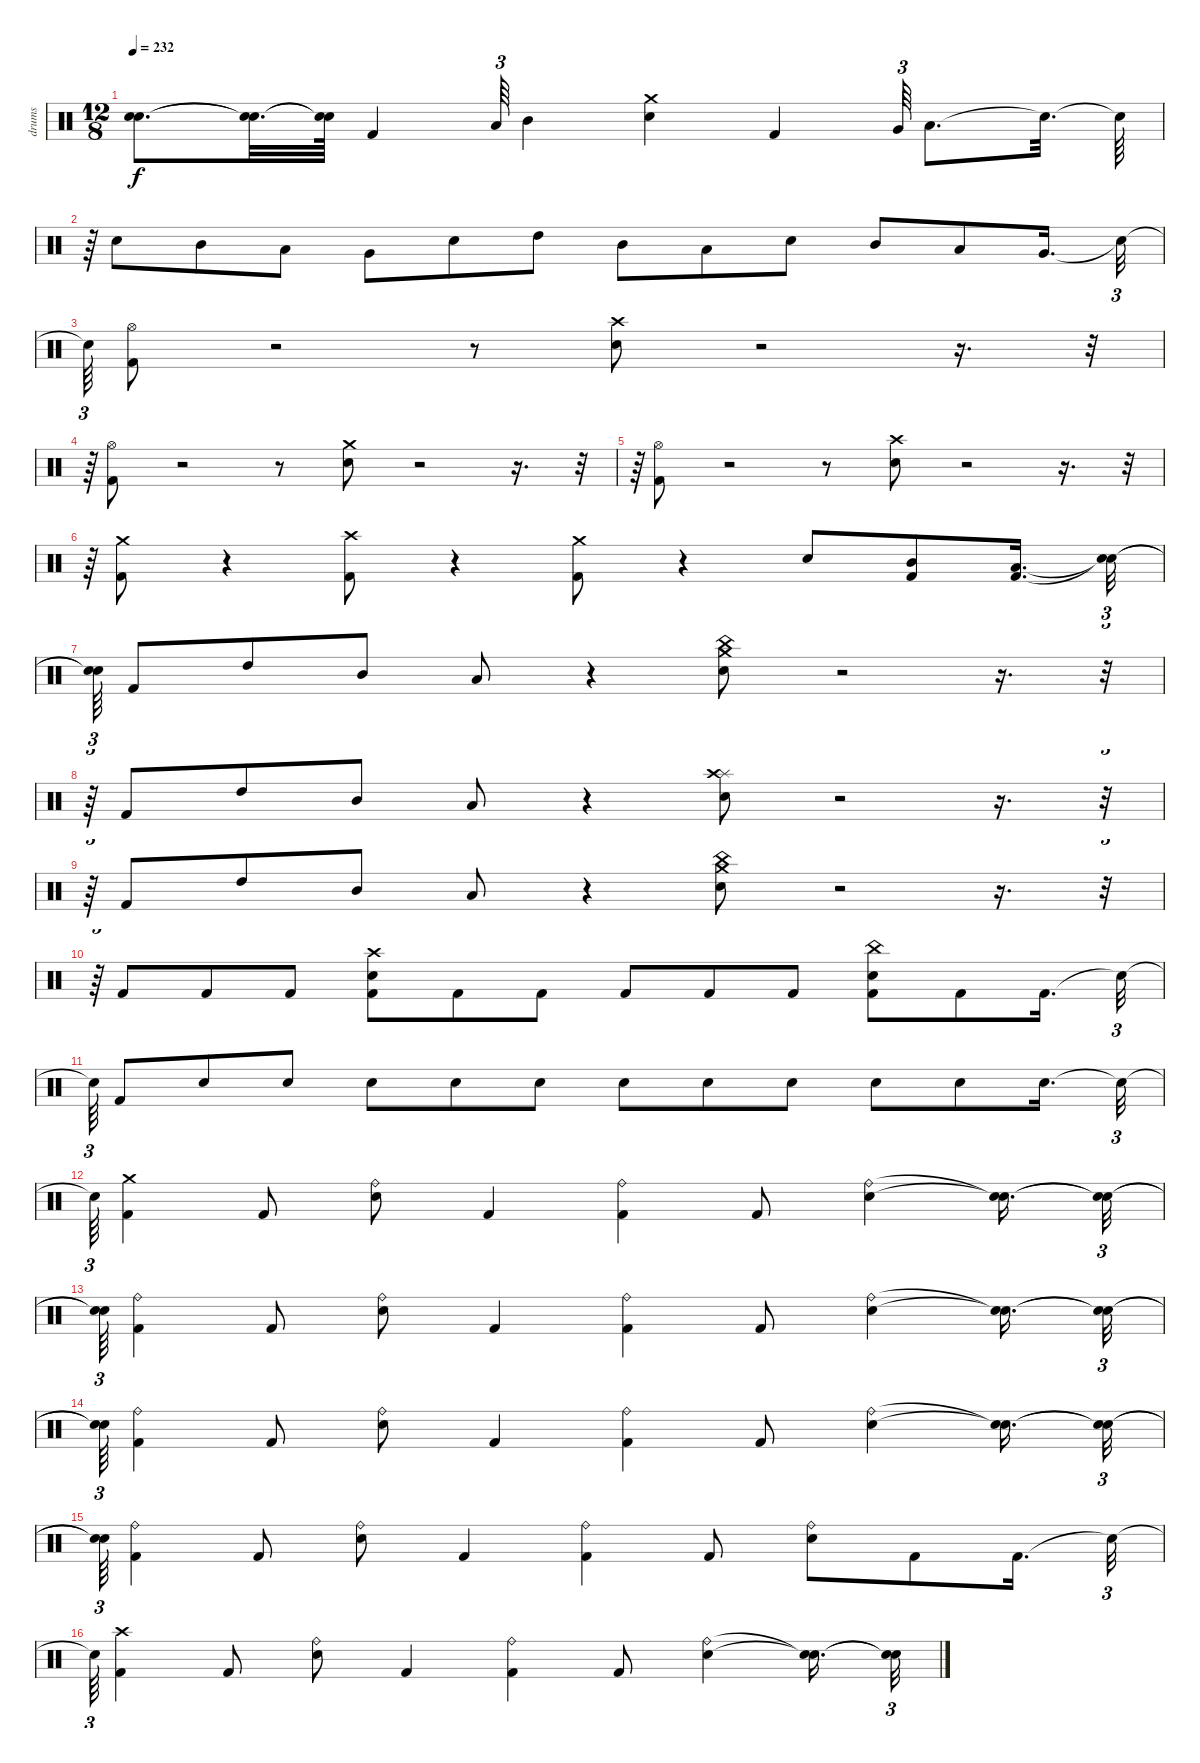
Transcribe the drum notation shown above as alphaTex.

\track ("drums" "drums") {instrument percussion}
\staff {score}
\articulation defaults
\ts (12 8)
\tempo 232
\clef neutral
\ks c
("Snare (hit)"{t} "Snare (hit)"{t}).8{d dy f} ("Snare (hit)"{t} "Snare (hit)"{t}).32{d} ("Snare (hit)"{t} "Snare (hit)"{t}).64 "Kick (hit) 2".4 "Low Tom (hit)".64{tu (3 2)} "Mid Tom (hit)".4 ("Crash medium (hit)" "Electric Snare (hit)").4 "Kick (hit) 2".4 "Very Low Tom (hit)".64{tu (3 2)} "Low Tom (hit)".8{d} "Snare (hit)"{t}.32{d} "Snare (hit)"{t}.64 |
r.64{tu (3 2)} "Electric Snare (hit)".8 "Mid Tom (hit)".8 "Low Tom (hit)".8 "Very Low Tom (hit)".8 "Electric Snare (hit)".8 "High Tom (hit)".8 "Mid Tom (hit)".8 "Low Tom (hit)".8 "Electric Snare (hit)".8 "Mid Tom (hit)".8 "Low Tom (hit)".8 "Very Low Tom (hit)".16{d} "Snare (hit)"{t}.32{tu (3 2)} |
"Snare (hit)"{t}.64{tu (3 2)} ("Hi-Hat (open)" "Kick (hit) 2").8 r.2 r.8 ("Crash high (hit)" "Electric Snare (hit)").8 r.2 r.16{d} r.32{tu (3 2)} |
r.64{tu (3 2)} ("Hi-Hat (open)" "Kick (hit) 2").8 r.2 r.8 ("Crash medium (hit)" "Electric Snare (hit)").8 r.2 r.16{d} r.32{tu (3 2)} |
r.64{tu (3 2)} ("Hi-Hat (open)" "Kick (hit) 2").8 r.2 r.8 ("Crash high (hit)" "Electric Snare (hit)").8 r.2 r.16{d} r.32{tu (3 2)} |
r.64{tu (3 2)} ("Crash medium (hit)" "Kick (hit) 2").8 r.4 ("Crash high (hit)" "Kick (hit) 2").8 r.4 ("Crash medium (hit)" "Kick (hit) 2").8 r.4 "Electric Snare (hit)".8 ("Kick (hit) 2" "Mid Tom (hit)").8 ("Kick (hit) 2" "Low Tom (hit)").16{d} ("Snare (hit)"{t} "Snare (hit)"{t}).32{tu (3 2)} |
("Snare (hit)"{t} "Snare (hit)"{t}).64{tu (3 2)} "Kick (hit) 2".8 "High Tom (hit)".8 "Mid Tom (hit)".8 "Low Tom (hit)".8 r.4 ("China (hit)" "Crash medium (hit)" "Electric Snare (hit)").8 r.2 r.16{d} r.32{tu (3 2)} |
r.64{tu (3 2)} "Kick (hit) 2".8 "High Tom (hit)".8 "Mid Tom (hit)".8 "Low Tom (hit)".8 r.4 ("Splash (hit)" "Crash high (hit)" "Electric Snare (hit)").8 r.2 r.16{d} r.32{tu (3 2)} |
r.64{tu (3 2)} "Kick (hit) 2".8 "High Tom (hit)".8 "Mid Tom (hit)".8 "Low Tom (hit)".8 r.4 ("China (hit)" "Crash medium (hit)" "Electric Snare (hit)").8 r.2 r.16{d} r.32{tu (3 2)} |
r.64{tu (3 2)} "Kick (hit) 2".8 "Kick (hit) 2".8 "Kick (hit) 2".8 ("Kick (hit) 2" "Crash high (hit)" "Electric Snare (hit)").8 "Kick (hit) 2".8 "Kick (hit) 2".8 "Kick (hit) 2".8 "Kick (hit) 2".8 "Kick (hit) 2".8 ("Kick (hit) 2" "China (hit)" "Electric Snare (hit)").8 "Kick (hit) 2".8 "Kick (hit) 2".16{d} "Snare (hit)"{t}.32{tu (3 2)} |
"Snare (hit)"{t}.64{tu (3 2)} "Kick (hit) 2".8 "Electric Snare (hit)".8 "Electric Snare (hit)".8 "Electric Snare (hit)".8 "Electric Snare (hit)".8 "Electric Snare (hit)".8 "Electric Snare (hit)".8 "Electric Snare (hit)".8 "Electric Snare (hit)".8 "Electric Snare (hit)".8 "Electric Snare (hit)".8 "Electric Snare (hit)".16{d} "Snare (hit)"{t}.32{tu (3 2)} |
"Snare (hit)"{t}.64{tu (3 2)} ("Crash medium (hit)" "Kick (hit) 2").4 "Kick (hit) 2".8 ("Ride (bell)" "Electric Snare (hit)").8 "Kick (hit) 2".4 ("Ride (bell)" "Kick (hit) 2").4 "Kick (hit) 2".8 ("Ride (bell)" "Electric Snare (hit)").4 ("Snare (hit)"{t} "Snare (hit)"{t}).16{d} ("Snare (hit)"{t} "Snare (hit)"{t}).32{tu (3 2)} |
("Snare (hit)"{t} "Snare (hit)"{t}).64{tu (3 2)} ("Ride (bell)" "Kick (hit) 2").4 "Kick (hit) 2".8 ("Ride (bell)" "Electric Snare (hit)").8 "Kick (hit) 2".4 ("Ride (bell)" "Kick (hit) 2").4 "Kick (hit) 2".8 ("Ride (bell)" "Electric Snare (hit)").4 ("Snare (hit)"{t} "Snare (hit)"{t}).16{d} ("Snare (hit)"{t} "Snare (hit)"{t}).32{tu (3 2)} |
("Snare (hit)"{t} "Snare (hit)"{t}).64{tu (3 2)} ("Kick (hit) 2" "Ride (bell)").4 "Kick (hit) 2".8 ("Ride (bell)" "Electric Snare (hit)").8 "Kick (hit) 2".4 ("Kick (hit) 2" "Ride (bell)").4 "Kick (hit) 2".8 ("Ride (bell)" "Electric Snare (hit)").4 ("Snare (hit)"{t} "Snare (hit)"{t}).16{d} ("Snare (hit)"{t} "Snare (hit)"{t}).32{tu (3 2)} |
("Snare (hit)"{t} "Snare (hit)"{t}).64{tu (3 2)} ("Kick (hit) 2" "Ride (bell)").4 "Kick (hit) 2".8 ("Ride (bell)" "Electric Snare (hit)").8 "Kick (hit) 2".4 ("Ride (bell)" "Kick (hit) 2").4 "Kick (hit) 2".8 ("Ride (bell)" "Electric Snare (hit)").8 "Kick (hit) 2".8 "Kick (hit) 2".16{d} "Snare (hit)"{t}.32{tu (3 2)} |
"Snare (hit)"{t}.64{tu (3 2)} ("Crash high (hit)" "Kick (hit) 2").4 "Kick (hit) 2".8 ("Ride (bell)" "Electric Snare (hit)").8 "Kick (hit) 2".4 ("Ride (bell)" "Kick (hit) 2").4 "Kick (hit) 2".8 ("Ride (bell)" "Electric Snare (hit)").4 ("Snare (hit)"{t} "Snare (hit)"{t}).16{d} ("Snare (hit)"{t} "Snare (hit)"{t}).32{tu (3 2)}
